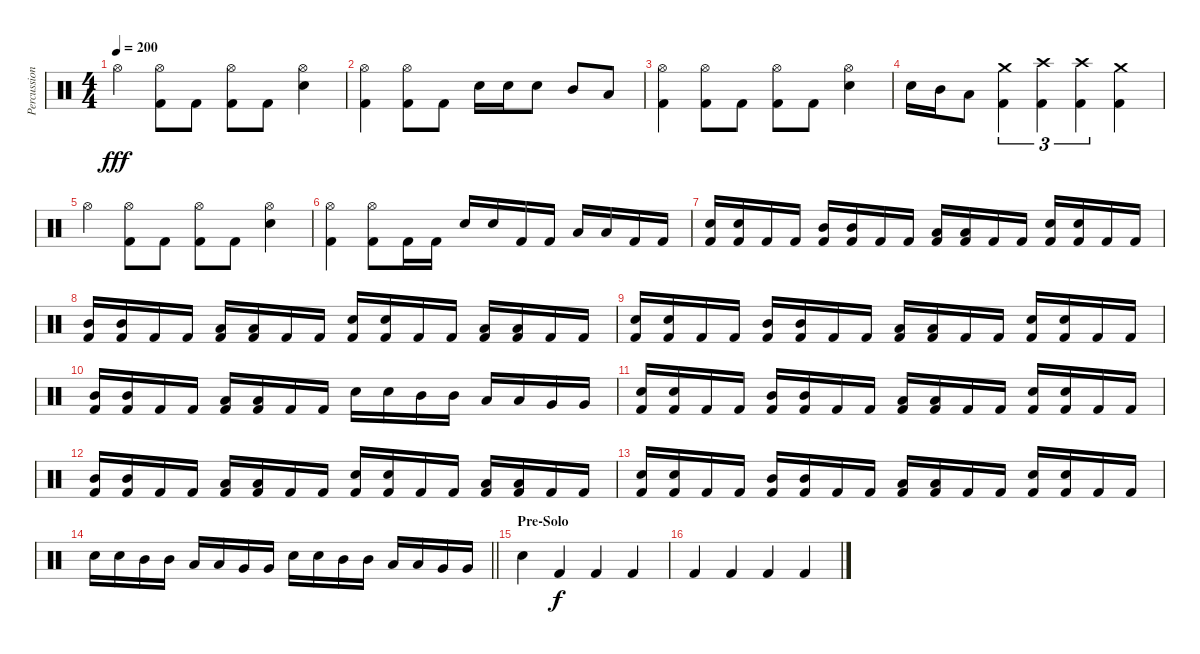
\track ("Percussion" "Percussion") {instrument percussion}
\staff {score}
\articulation defaults
\ts (4 4)
\tempo 200
\clef neutral
\ks c "Hi-Hat (open)".4{dy fff}
("Hi-Hat (open)" "Kick (hit) 2").8 "Kick (hit) 2".8 ("Hi-Hat (open)" "Kick (hit) 2").8 "Kick (hit) 2".8 ("Hi-Hat (open)" "Electric Snare (hit)").4 |
("Hi-Hat (open)" "Kick (hit) 2").4 ("Hi-Hat (open)" "Kick (hit) 2").8 "Kick (hit) 2".8 "Electric Snare (hit)".16 "Electric Snare (hit)".16 "Electric Snare (hit)".8 "Mid Tom (hit)".8 "Low Tom (hit)".8 |
("Hi-Hat (open)" "Kick (hit) 2").4 ("Hi-Hat (open)" "Kick (hit) 2").8 "Kick (hit) 2".8 ("Hi-Hat (open)" "Kick (hit) 2").8 "Kick (hit) 2".8 ("Hi-Hat (open)" "Electric Snare (hit)").4 |
"Electric Snare (hit)".16 "Mid Tom (hit)".16 "Low Tom (hit)".8 ("Crash medium (hit)" "Kick (hit) 2").4{tu (3 2)} ("Crash high (hit)" "Kick (hit) 2").4{tu (3 2)} ("Crash high (hit)" "Kick (hit) 2").4{tu (3 2)} ("Crash medium (hit)" "Kick (hit) 2").4 |
"Hi-Hat (open)".4 ("Hi-Hat (open)" "Kick (hit) 2").8 "Kick (hit) 2".8 ("Hi-Hat (open)" "Kick (hit) 2").8 "Kick (hit) 2".8 ("Hi-Hat (open)" "Electric Snare (hit)").4 |
("Hi-Hat (open)" "Kick (hit) 2").4 ("Hi-Hat (open)" "Kick (hit) 2").8 "Kick (hit) 2".16 "Kick (hit) 2".16 "Electric Snare (hit)".16 "Electric Snare (hit)".16 "Kick (hit) 2".16 "Kick (hit) 2".16 "Low Tom (hit)".16 "Low Tom (hit)".16 "Kick (hit) 2".16 "Kick (hit) 2".16 |
("Electric Snare (hit)" "Kick (hit) 2").16 ("Electric Snare (hit)" "Kick (hit) 2").16 "Kick (hit) 2".16 "Kick (hit) 2".16 ("Mid Tom (hit)" "Kick (hit) 2").16 ("Mid Tom (hit)" "Kick (hit) 2").16 "Kick (hit) 2".16 "Kick (hit) 2".16 ("Low Tom (hit)" "Kick (hit) 2").16 ("Low Tom (hit)" "Kick (hit) 2").16 "Kick (hit) 2".16 "Kick (hit) 2".16 ("Electric Snare (hit)" "Kick (hit) 2").16 ("Electric Snare (hit)" "Kick (hit) 2").16 "Kick (hit) 2".16 "Kick (hit) 2".16 |
("Mid Tom (hit)" "Kick (hit) 2").16 ("Mid Tom (hit)" "Kick (hit) 2").16 "Kick (hit) 2".16 "Kick (hit) 2".16 ("Low Tom (hit)" "Kick (hit) 2").16 ("Low Tom (hit)" "Kick (hit) 2").16 "Kick (hit) 2".16 "Kick (hit) 2".16 ("Electric Snare (hit)" "Kick (hit) 2").16 ("Electric Snare (hit)" "Kick (hit) 2").16 "Kick (hit) 2".16 "Kick (hit) 2".16 ("Low Tom (hit)" "Kick (hit) 2").16 ("Low Tom (hit)" "Kick (hit) 2").16 "Kick (hit) 2".16 "Kick (hit) 2".16 |
("Electric Snare (hit)" "Kick (hit) 2").16 ("Electric Snare (hit)" "Kick (hit) 2").16 "Kick (hit) 2".16 "Kick (hit) 2".16 ("Mid Tom (hit)" "Kick (hit) 2").16 ("Mid Tom (hit)" "Kick (hit) 2").16 "Kick (hit) 2".16 "Kick (hit) 2".16 ("Low Tom (hit)" "Kick (hit) 2").16 ("Low Tom (hit)" "Kick (hit) 2").16 "Kick (hit) 2".16 "Kick (hit) 2".16 ("Electric Snare (hit)" "Kick (hit) 2").16 ("Electric Snare (hit)" "Kick (hit) 2").16 "Kick (hit) 2".16 "Kick (hit) 2".16 |
("Mid Tom (hit)" "Kick (hit) 2").16 ("Mid Tom (hit)" "Kick (hit) 2").16 "Kick (hit) 2".16 "Kick (hit) 2".16 ("Low Tom (hit)" "Kick (hit) 2").16 ("Low Tom (hit)" "Kick (hit) 2").16 "Kick (hit) 2".16 "Kick (hit) 2".16 "Electric Snare (hit)".16 "Electric Snare (hit)".16 "Mid Tom (hit)".16 "Mid Tom (hit)".16 "Low Tom (hit)".16 "Low Tom (hit)".16 "Very Low Tom (hit)".16 "Very Low Tom (hit)".16 |
("Electric Snare (hit)" "Kick (hit) 2").16 ("Electric Snare (hit)" "Kick (hit) 2").16 "Kick (hit) 2".16 "Kick (hit) 2".16 ("Mid Tom (hit)" "Kick (hit) 2").16 ("Mid Tom (hit)" "Kick (hit) 2").16 "Kick (hit) 2".16 "Kick (hit) 2".16 ("Low Tom (hit)" "Kick (hit) 2").16 ("Low Tom (hit)" "Kick (hit) 2").16 "Kick (hit) 2".16 "Kick (hit) 2".16 ("Electric Snare (hit)" "Kick (hit) 2").16 ("Electric Snare (hit)" "Kick (hit) 2").16 "Kick (hit) 2".16 "Kick (hit) 2".16 |
("Mid Tom (hit)" "Kick (hit) 2").16 ("Mid Tom (hit)" "Kick (hit) 2").16 "Kick (hit) 2".16 "Kick (hit) 2".16 ("Low Tom (hit)" "Kick (hit) 2").16 ("Low Tom (hit)" "Kick (hit) 2").16 "Kick (hit) 2".16 "Kick (hit) 2".16 ("Electric Snare (hit)" "Kick (hit) 2").16 ("Electric Snare (hit)" "Kick (hit) 2").16 "Kick (hit) 2".16 "Kick (hit) 2".16 ("Low Tom (hit)" "Kick (hit) 2").16 ("Low Tom (hit)" "Kick (hit) 2").16 "Kick (hit) 2".16 "Kick (hit) 2".16 |
("Electric Snare (hit)" "Kick (hit) 2").16 ("Electric Snare (hit)" "Kick (hit) 2").16 "Kick (hit) 2".16 "Kick (hit) 2".16 ("Mid Tom (hit)" "Kick (hit) 2").16 ("Mid Tom (hit)" "Kick (hit) 2").16 "Kick (hit) 2".16 "Kick (hit) 2".16 ("Low Tom (hit)" "Kick (hit) 2").16 ("Low Tom (hit)" "Kick (hit) 2").16 "Kick (hit) 2".16 "Kick (hit) 2".16 ("Electric Snare (hit)" "Kick (hit) 2").16 ("Electric Snare (hit)" "Kick (hit) 2").16 "Kick (hit) 2".16 "Kick (hit) 2".16 |
\barLineRight lightlight "Electric Snare (hit)".16 "Electric Snare (hit)".16 "Mid Tom (hit)".16 "Mid Tom (hit)".16 "Low Tom (hit)".16 "Low Tom (hit)".16 "Very Low Tom (hit)".16 "Very Low Tom (hit)".16 "Electric Snare (hit)".16 "Electric Snare (hit)".16 "Mid Tom (hit)".16 "Mid Tom (hit)".16 "Low Tom (hit)".16 "Low Tom (hit)".16 "Very Low Tom (hit)".16 "Very Low Tom (hit)".16
|
\section ("" "Pre-Solo")
"Electric Snare (hit)".4 "Kick (hit) 2".4{dy f} "Kick (hit) 2".4 "Kick (hit) 2".4 |
"Kick (hit) 2".4 "Kick (hit) 2".4 "Kick (hit) 2".4 "Kick (hit) 2".4
